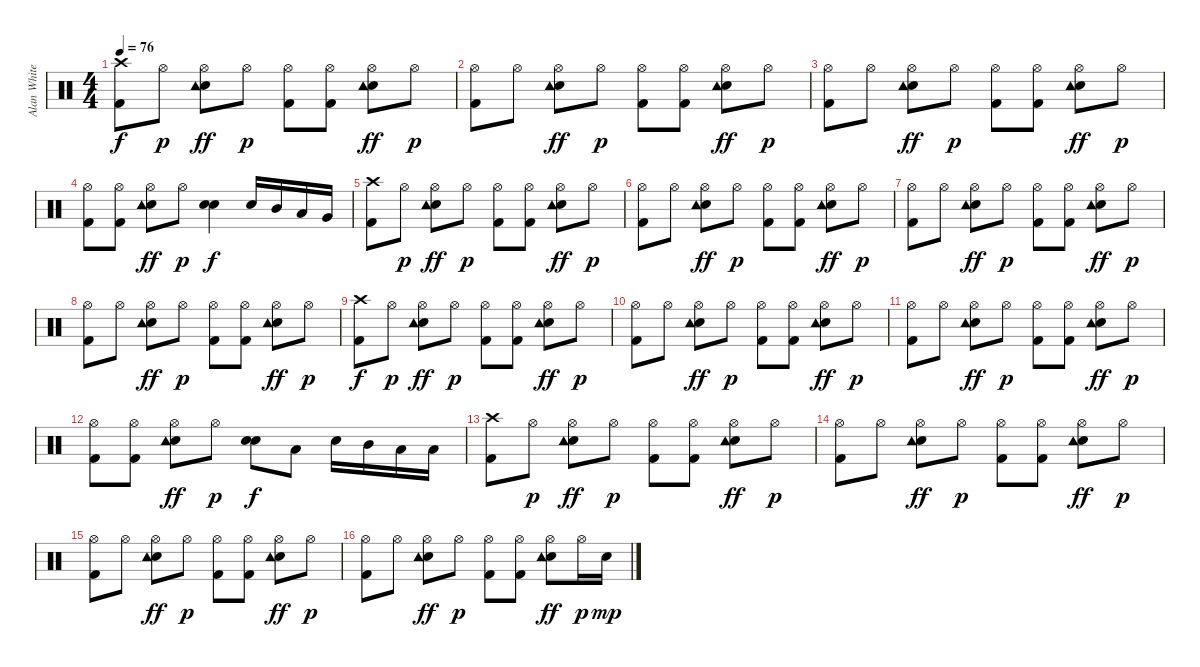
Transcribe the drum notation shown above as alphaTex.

\track ("Alan White" "Alan White") {instrument percussion}
\staff {score}
\articulation defaults
\ts (4 4)
\tempo 76
\clef neutral
\ks c
("Crash high (hit)" "Kick (hit) 2").8{dy f} "Hi-Hat (open)".8{dy p} ("Hi-Hat (open)" "Snare (hit) 2" "Tambourine (hit)").8{dy ff} "Hi-Hat (open)".8{dy p} ("Hi-Hat (open)" "Kick (hit) 2").8 ("Hi-Hat (open)" "Kick (hit) 2").8 ("Hi-Hat (open)" "Snare (hit) 2" "Tambourine (hit)").8{dy ff} "Hi-Hat (open)".8{dy p} |
("Hi-Hat (open)" "Kick (hit) 2").8 "Hi-Hat (open)".8 ("Hi-Hat (open)" "Snare (hit) 2" "Tambourine (hit)").8{dy ff} "Hi-Hat (open)".8{dy p} ("Hi-Hat (open)" "Kick (hit) 2").8 ("Hi-Hat (open)" "Kick (hit) 2").8 ("Hi-Hat (open)" "Snare (hit) 2" "Tambourine (hit)").8{dy ff} "Hi-Hat (open)".8{dy p} |
("Hi-Hat (open)" "Kick (hit) 2").8 "Hi-Hat (open)".8 ("Hi-Hat (open)" "Snare (hit) 2" "Tambourine (hit)").8{dy ff} "Hi-Hat (open)".8{dy p} ("Hi-Hat (open)" "Kick (hit) 2").8 ("Hi-Hat (open)" "Kick (hit) 2").8 ("Hi-Hat (open)" "Snare (hit) 2" "Tambourine (hit)").8{dy ff} "Hi-Hat (open)".8{dy p} |
("Hi-Hat (open)" "Kick (hit) 2").8 ("Hi-Hat (open)" "Kick (hit) 2").8 ("Hi-Hat (open)" "Snare (hit) 2" "Tambourine (hit)").8{dy ff} "Hi-Hat (open)".8{dy p} ("Snare (hit) 2" "Snare (hit) 2").4{dy f} "Snare (hit) 2".16 "Mid Tom (hit)".16 "Low Tom (hit)".16 "Very Low Tom (hit)".16 |
("Crash high (hit)" "Kick (hit) 2").8 "Hi-Hat (open)".8{dy p} ("Hi-Hat (open)" "Snare (hit) 2" "Tambourine (hit)").8{dy ff} "Hi-Hat (open)".8{dy p} ("Hi-Hat (open)" "Kick (hit) 2").8 ("Hi-Hat (open)" "Kick (hit) 2").8 ("Hi-Hat (open)" "Snare (hit) 2" "Tambourine (hit)").8{dy ff} "Hi-Hat (open)".8{dy p} |
("Hi-Hat (open)" "Kick (hit) 2").8 "Hi-Hat (open)".8 ("Hi-Hat (open)" "Snare (hit) 2" "Tambourine (hit)").8{dy ff} "Hi-Hat (open)".8{dy p} ("Hi-Hat (open)" "Kick (hit) 2").8 ("Hi-Hat (open)" "Kick (hit) 2").8 ("Hi-Hat (open)" "Snare (hit) 2" "Tambourine (hit)").8{dy ff} "Hi-Hat (open)".8{dy p} |
("Hi-Hat (open)" "Kick (hit) 2").8 "Hi-Hat (open)".8 ("Hi-Hat (open)" "Snare (hit) 2" "Tambourine (hit)").8{dy ff} "Hi-Hat (open)".8{dy p} ("Hi-Hat (open)" "Kick (hit) 2").8 ("Hi-Hat (open)" "Kick (hit) 2").8 ("Hi-Hat (open)" "Snare (hit) 2" "Tambourine (hit)").8{dy ff} "Hi-Hat (open)".8{dy p} |
("Hi-Hat (open)" "Kick (hit) 2").8 "Hi-Hat (open)".8 ("Hi-Hat (open)" "Snare (hit) 2" "Tambourine (hit)").8{dy ff} "Hi-Hat (open)".8{dy p} ("Hi-Hat (open)" "Kick (hit) 2").8 ("Hi-Hat (open)" "Kick (hit) 2").8 ("Hi-Hat (open)" "Snare (hit) 2" "Tambourine (hit)").8{dy ff} "Hi-Hat (open)".8{dy p} |
("Crash high (hit)" "Kick (hit) 2").8{dy f} "Hi-Hat (open)".8{dy p} ("Hi-Hat (open)" "Snare (hit) 2" "Tambourine (hit)").8{dy ff} "Hi-Hat (open)".8{dy p} ("Hi-Hat (open)" "Kick (hit) 2").8 ("Hi-Hat (open)" "Kick (hit) 2").8 ("Hi-Hat (open)" "Snare (hit) 2" "Tambourine (hit)").8{dy ff} "Hi-Hat (open)".8{dy p} |
("Hi-Hat (open)" "Kick (hit) 2").8 "Hi-Hat (open)".8 ("Hi-Hat (open)" "Snare (hit) 2" "Tambourine (hit)").8{dy ff} "Hi-Hat (open)".8{dy p} ("Hi-Hat (open)" "Kick (hit) 2").8 ("Hi-Hat (open)" "Kick (hit) 2").8 ("Hi-Hat (open)" "Snare (hit) 2" "Tambourine (hit)").8{dy ff} "Hi-Hat (open)".8{dy p} |
("Hi-Hat (open)" "Kick (hit) 2").8 "Hi-Hat (open)".8 ("Hi-Hat (open)" "Snare (hit) 2" "Tambourine (hit)").8{dy ff} "Hi-Hat (open)".8{dy p} ("Hi-Hat (open)" "Kick (hit) 2").8 ("Hi-Hat (open)" "Kick (hit) 2").8 ("Hi-Hat (open)" "Snare (hit) 2" "Tambourine (hit)").8{dy ff} "Hi-Hat (open)".8{dy p} |
("Hi-Hat (open)" "Kick (hit) 2").8 ("Hi-Hat (open)" "Kick (hit) 2").8 ("Hi-Hat (open)" "Snare (hit) 2" "Tambourine (hit)").8{dy ff} "Hi-Hat (open)".8{dy p} ("Snare (hit) 2" "Snare (hit) 2").8{dy f} "Low Tom (hit)".8 "Snare (hit) 2".16 "Mid Tom (hit)".16 "Low Tom (hit)".16 "Low Floor Tom (hit)".16 |
("Crash high (hit)" "Kick (hit) 2").8 "Hi-Hat (open)".8{dy p} ("Hi-Hat (open)" "Snare (hit) 2" "Tambourine (hit)").8{dy ff} "Hi-Hat (open)".8{dy p} ("Hi-Hat (open)" "Kick (hit) 2").8 ("Hi-Hat (open)" "Kick (hit) 2").8 ("Hi-Hat (open)" "Snare (hit) 2" "Tambourine (hit)").8{dy ff} "Hi-Hat (open)".8{dy p} |
("Hi-Hat (open)" "Kick (hit) 2").8 "Hi-Hat (open)".8 ("Hi-Hat (open)" "Snare (hit) 2" "Tambourine (hit)").8{dy ff} "Hi-Hat (open)".8{dy p} ("Hi-Hat (open)" "Kick (hit) 2").8 ("Hi-Hat (open)" "Kick (hit) 2").8 ("Hi-Hat (open)" "Snare (hit) 2" "Tambourine (hit)").8{dy ff} "Hi-Hat (open)".8{dy p} |
("Hi-Hat (open)" "Kick (hit) 2").8 "Hi-Hat (open)".8 ("Hi-Hat (open)" "Snare (hit) 2" "Tambourine (hit)").8{dy ff} "Hi-Hat (open)".8{dy p} ("Hi-Hat (open)" "Kick (hit) 2").8 ("Hi-Hat (open)" "Kick (hit) 2").8 ("Hi-Hat (open)" "Snare (hit) 2" "Tambourine (hit)").8{dy ff} "Hi-Hat (open)".8{dy p} |
("Hi-Hat (open)" "Kick (hit) 2").8 "Hi-Hat (open)".8 ("Hi-Hat (open)" "Snare (hit) 2" "Tambourine (hit)").8{dy ff} "Hi-Hat (open)".8{dy p} ("Hi-Hat (open)" "Kick (hit) 2").8 ("Hi-Hat (open)" "Kick (hit) 2").8 ("Hi-Hat (open)" "Snare (hit) 2" "Tambourine (hit)").8{dy ff} "Hi-Hat (open)".16{dy p} "Snare (hit) 2".16{dy mp}
